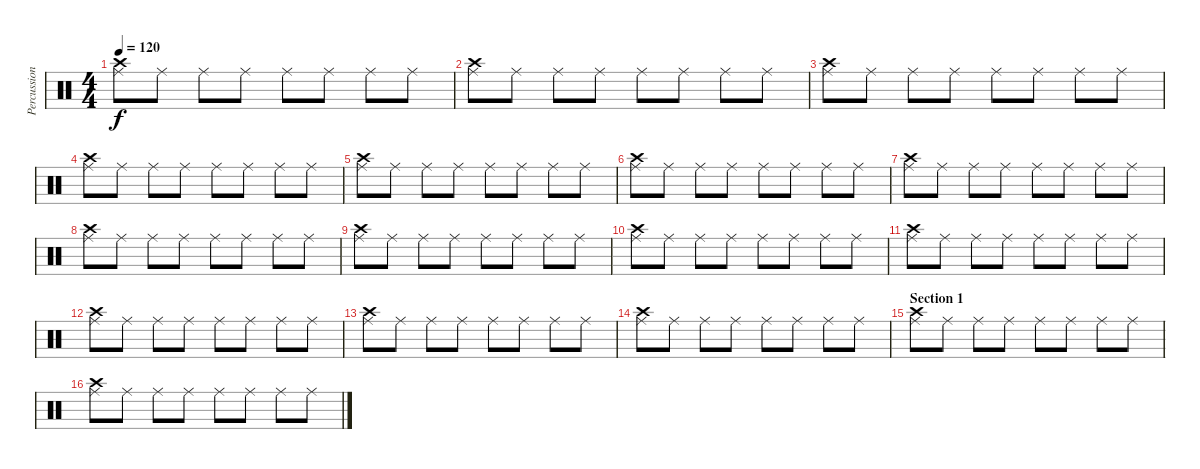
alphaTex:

\track ("Percussions" "Percussion") {instrument percussion}
\staff {score}
\articulation defaults
\ts (4 4)
\tempo 120
\clef neutral
\ks c
("Ride (middle)" "Crash high (hit)").8{dy f} "Ride (middle)".8 "Ride (middle)".8 "Ride (middle)".8 "Ride (middle)".8 "Ride (middle)".8 "Ride (middle)".8 "Ride (middle)".8 |
("Ride (middle)" "Crash high (hit)").8 "Ride (middle)".8 "Ride (middle)".8 "Ride (middle)".8 "Ride (middle)".8 "Ride (middle)".8 "Ride (middle)".8 "Ride (middle)".8 |
("Ride (middle)" "Crash high (hit)").8 "Ride (middle)".8 "Ride (middle)".8 "Ride (middle)".8 "Ride (middle)".8 "Ride (middle)".8 "Ride (middle)".8 "Ride (middle)".8 |
("Ride (middle)" "Crash high (hit)").8 "Ride (middle)".8 "Ride (middle)".8 "Ride (middle)".8 "Ride (middle)".8 "Ride (middle)".8 "Ride (middle)".8 "Ride (middle)".8 |
("Ride (middle)" "Crash high (hit)").8 "Ride (middle)".8 "Ride (middle)".8 "Ride (middle)".8 "Ride (middle)".8 "Ride (middle)".8 "Ride (middle)".8 "Ride (middle)".8 |
("Ride (middle)" "Crash high (hit)").8 "Ride (middle)".8 "Ride (middle)".8 "Ride (middle)".8 "Ride (middle)".8 "Ride (middle)".8 "Ride (middle)".8 "Ride (middle)".8 |
("Ride (middle)" "Crash high (hit)").8 "Ride (middle)".8 "Ride (middle)".8 "Ride (middle)".8 "Ride (middle)".8 "Ride (middle)".8 "Ride (middle)".8 "Ride (middle)".8 |
("Ride (middle)" "Crash high (hit)").8 "Ride (middle)".8 "Ride (middle)".8 "Ride (middle)".8 "Ride (middle)".8 "Ride (middle)".8 "Ride (middle)".8 "Ride (middle)".8 |
("Ride (middle)" "Crash high (hit)").8 "Ride (middle)".8 "Ride (middle)".8 "Ride (middle)".8 "Ride (middle)".8 "Ride (middle)".8 "Ride (middle)".8 "Ride (middle)".8 |
("Ride (middle)" "Crash high (hit)").8 "Ride (middle)".8 "Ride (middle)".8 "Ride (middle)".8 "Ride (middle)".8 "Ride (middle)".8 "Ride (middle)".8 "Ride (middle)".8 |
("Ride (middle)" "Crash high (hit)").8 "Ride (middle)".8 "Ride (middle)".8 "Ride (middle)".8 "Ride (middle)".8 "Ride (middle)".8 "Ride (middle)".8 "Ride (middle)".8 |
("Ride (middle)" "Crash high (hit)").8 "Ride (middle)".8 "Ride (middle)".8 "Ride (middle)".8 "Ride (middle)".8 "Ride (middle)".8 "Ride (middle)".8 "Ride (middle)".8 |
("Ride (middle)" "Crash high (hit)").8 "Ride (middle)".8 "Ride (middle)".8 "Ride (middle)".8 "Ride (middle)".8 "Ride (middle)".8 "Ride (middle)".8 "Ride (middle)".8 |
("Ride (middle)" "Crash high (hit)").8 "Ride (middle)".8 "Ride (middle)".8 "Ride (middle)".8 "Ride (middle)".8 "Ride (middle)".8 "Ride (middle)".8 "Ride (middle)".8 |
\section ("" "Section 1")
("Ride (middle)" "Crash high (hit)").8 "Ride (middle)".8 "Ride (middle)".8 "Ride (middle)".8 "Ride (middle)".8 "Ride (middle)".8 "Ride (middle)".8 "Ride (middle)".8 |
("Ride (middle)" "Crash high (hit)").8 "Ride (middle)".8 "Ride (middle)".8 "Ride (middle)".8 "Ride (middle)".8 "Ride (middle)".8 "Ride (middle)".8 "Ride (middle)".8
